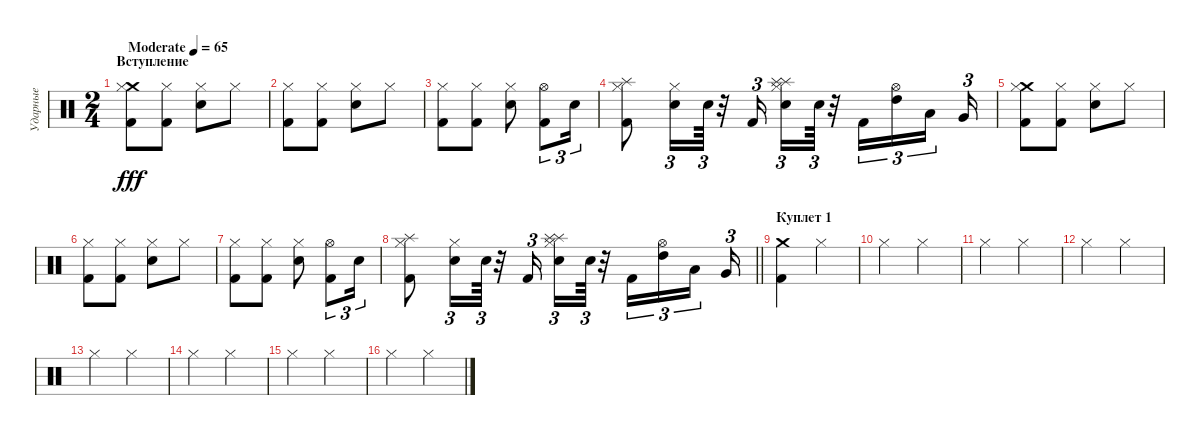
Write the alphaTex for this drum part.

\track ("Ударные" "Ударные") {instrument percussion}
\staff
\articulation defaults
\ts (2 4)
\section ("" "Вступление")
\tempo (65 "Moderate")
\clef neutral
\ks c
("Kick (hit) 2" "Crash medium (hit)" "Hi-Hat (closed)").8{dy fff} ("Kick (hit) 2" "Hi-Hat (closed)").8 ("Snare (hit) 2" "Hi-Hat (closed)").8 "Hi-Hat (closed)".8 |
("Kick (hit) 2" "Hi-Hat (closed)").8 ("Kick (hit) 2" "Hi-Hat (closed)").8 ("Snare (hit) 2" "Hi-Hat (closed)").8 "Hi-Hat (closed)".8 |
("Kick (hit) 2" "Hi-Hat (closed)").8 ("Kick (hit) 2" "Hi-Hat (closed)").8 ("Snare (hit) 2" "Hi-Hat (closed)").8 ("Kick (hit) 2" "Hi-Hat (open)").8{tu (3 2)} "Electric Snare (hit)".16{tu (3 2)} |
("Kick (hit) 2" "Splash (hit)" "Hi-Hat (closed)").8 ("Snare (hit) 2" "Hi-Hat (closed)").16{tu (3 2)} "Snare (hit) 2".64{tu (3 2)} r.32 "Kick (hit) 2".16{tu (3 2)} ("Snare (hit) 2" "Splash (hit)" "Splash (hit)" "Hi-Hat (closed)").16{tu (3 2)} "Snare (hit) 2".64{tu (3 2)} r.32 "Kick (hit) 2".16{tu (3 2)} ("High Tom (hit)" "Hi-Hat (open)").16{tu (3 2)} "Low Tom (hit)".16{tu (3 2) beam splitsecondary} "Very Low Tom (hit)".16{tu (3 2)} |
("Kick (hit) 2" "Crash medium (hit)" "Hi-Hat (closed)").8 ("Kick (hit) 2" "Hi-Hat (closed)").8 ("Snare (hit) 2" "Hi-Hat (closed)").8 "Hi-Hat (closed)".8 |
("Kick (hit) 2" "Hi-Hat (closed)").8 ("Kick (hit) 2" "Hi-Hat (closed)").8 ("Snare (hit) 2" "Hi-Hat (closed)").8 "Hi-Hat (closed)".8 |
("Kick (hit) 2" "Hi-Hat (closed)").8 ("Kick (hit) 2" "Hi-Hat (closed)").8 ("Snare (hit) 2" "Hi-Hat (closed)").8 ("Kick (hit) 2" "Hi-Hat (open)").8{tu (3 2)} "Electric Snare (hit)".16{tu (3 2)} |
\barLineRight lightlight
("Kick (hit) 2" "Splash (hit)" "Hi-Hat (closed)").8 ("Snare (hit) 2" "Hi-Hat (closed)").16{tu (3 2)} "Snare (hit) 2".64{tu (3 2)} r.32 "Kick (hit) 2".16{tu (3 2)} ("Snare (hit) 2" "Splash (hit)" "Splash (hit)" "Hi-Hat (closed)").16{tu (3 2)} "Snare (hit) 2".64{tu (3 2)} r.32 "Kick (hit) 2".16{tu (3 2)} ("High Tom (hit)" "Hi-Hat (open)").16{tu (3 2)} "Low Tom (hit)".16{tu (3 2) beam splitsecondary} "Very Low Tom (hit)".16{tu (3 2)} |
\section ("" "Куплет 1")
("Kick (hit) 2" "Crash medium (hit)").4 "Hi-Hat (closed)".4 |
"Hi-Hat (closed)".4 "Hi-Hat (closed)".4 |
"Hi-Hat (closed)".4 "Hi-Hat (closed)".4 |
"Hi-Hat (closed)".4 "Hi-Hat (closed)".4 |
"Hi-Hat (closed)".4 "Hi-Hat (closed)".4 |
"Hi-Hat (closed)".4 "Hi-Hat (closed)".4 |
"Hi-Hat (closed)".4 "Hi-Hat (closed)".4 |
"Hi-Hat (closed)".4 "Hi-Hat (closed)".4
